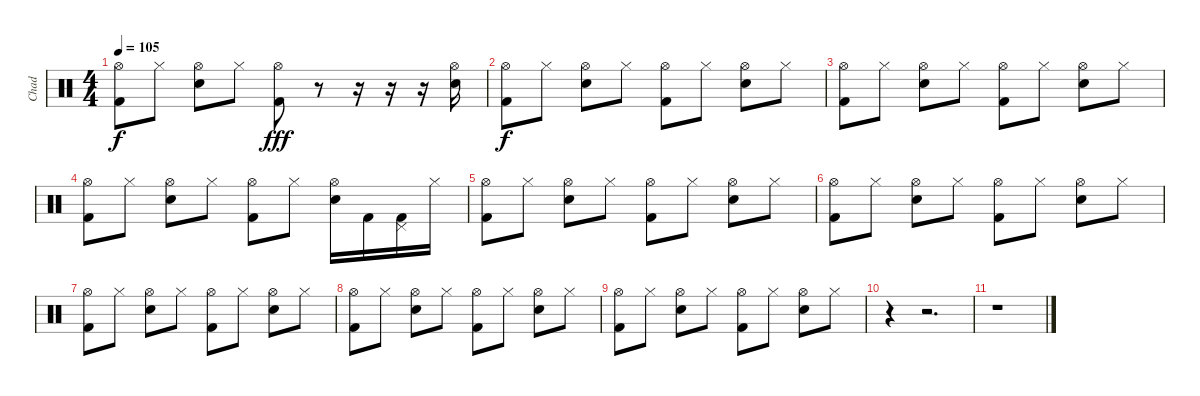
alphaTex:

\track ("Chad" "Chad") {instrument percussion}
\staff {score}
\articulation defaults
\ts (4 4)
\tempo 105
\clef neutral
\ks c
("Hi-Hat (open)" "Kick (hit) 2").8{dy f} "Hi-Hat (closed)".8 ("Hi-Hat (open)" "Electric Snare (hit)").8 "Hi-Hat (closed)".8 ("Hi-Hat (open)" "Kick (hit) 2").8{dy fff} r.8 r.16 r.16 r.16 ("Hi-Hat (open)" "Electric Snare (hit)").16 |
("Hi-Hat (open)" "Kick (hit) 2").8{dy f} "Hi-Hat (closed)".8 ("Hi-Hat (open)" "Electric Snare (hit)").8 "Hi-Hat (closed)".8 ("Hi-Hat (open)" "Kick (hit) 2").8 "Hi-Hat (closed)".8 ("Hi-Hat (open)" "Electric Snare (hit)").8 "Hi-Hat (closed)".8 |
("Hi-Hat (open)" "Kick (hit) 2").8 "Hi-Hat (closed)".8 ("Hi-Hat (open)" "Electric Snare (hit)").8 "Hi-Hat (closed)".8 ("Hi-Hat (open)" "Kick (hit) 2").8 "Hi-Hat (closed)".8 ("Hi-Hat (open)" "Electric Snare (hit)").8 "Hi-Hat (closed)".8 |
("Hi-Hat (open)" "Kick (hit) 2").8 "Hi-Hat (closed)".8 ("Hi-Hat (open)" "Electric Snare (hit)").8 "Hi-Hat (closed)".8 ("Hi-Hat (open)" "Kick (hit) 2").8 "Hi-Hat (closed)".8 ("Hi-Hat (open)" "Electric Snare (hit)").16 "Kick (hit) 2".16 ("Pedal Hi-Hat (hit)" "Kick (hit) 2").16 "Hi-Hat (closed)".16 |
("Hi-Hat (open)" "Kick (hit) 2").8 "Hi-Hat (closed)".8 ("Hi-Hat (open)" "Electric Snare (hit)").8 "Hi-Hat (closed)".8 ("Hi-Hat (open)" "Kick (hit) 2").8 "Hi-Hat (closed)".8 ("Hi-Hat (open)" "Electric Snare (hit)").8 "Hi-Hat (closed)".8 |
("Hi-Hat (open)" "Kick (hit) 2").8 "Hi-Hat (closed)".8 ("Hi-Hat (open)" "Electric Snare (hit)").8 "Hi-Hat (closed)".8 ("Hi-Hat (open)" "Kick (hit) 2").8 "Hi-Hat (closed)".8 ("Hi-Hat (open)" "Electric Snare (hit)").8 "Hi-Hat (closed)".8 |
("Hi-Hat (open)" "Kick (hit) 2").8 "Hi-Hat (closed)".8 ("Hi-Hat (open)" "Electric Snare (hit)").8 "Hi-Hat (closed)".8 ("Hi-Hat (open)" "Kick (hit) 2").8 "Hi-Hat (closed)".8 ("Hi-Hat (open)" "Electric Snare (hit)").8 "Hi-Hat (closed)".8 |
("Hi-Hat (open)" "Kick (hit) 2").8 "Hi-Hat (closed)".8 ("Hi-Hat (open)" "Electric Snare (hit)").8 "Hi-Hat (closed)".8 ("Hi-Hat (open)" "Kick (hit) 2").8 "Hi-Hat (closed)".8 ("Hi-Hat (open)" "Electric Snare (hit)").8 "Hi-Hat (closed)".8 |
("Hi-Hat (open)" "Kick (hit) 2").8 "Hi-Hat (closed)".8 ("Hi-Hat (open)" "Electric Snare (hit)").8 "Hi-Hat (closed)".8 ("Hi-Hat (open)" "Kick (hit) 2").8 "Hi-Hat (closed)".8 ("Hi-Hat (open)" "Electric Snare (hit)").8 "Hi-Hat (closed)".8 |
r.4 r.2{d} |
r.1
